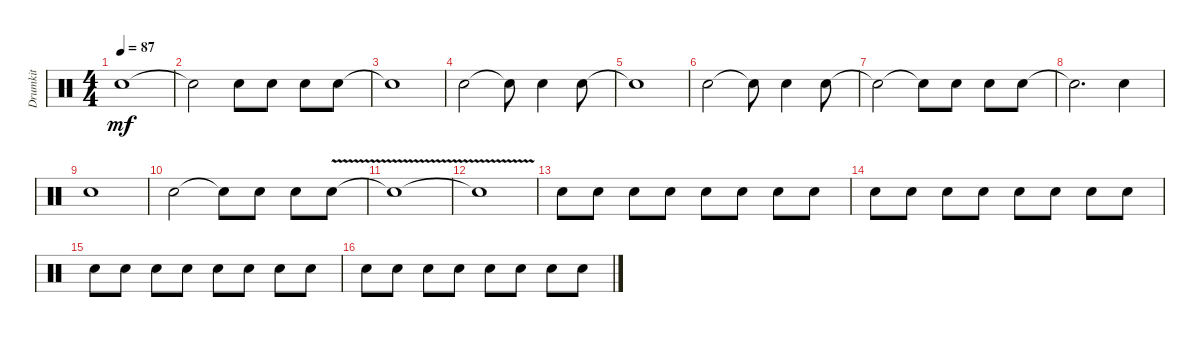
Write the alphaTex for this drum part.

\track ("Drumkit" "Drumkit") {instrument percussion}
\staff {score}
\articulation defaults
\ts (4 4)
\tempo 87
\clef neutral
\ks c "Snare (hit)".1{dy mf}
|
"Snare (hit)"{t}.2 "Snare (hit)".8 "Snare (hit)".8 "Snare (hit)".8 "Snare (hit)".8 |
"Snare (hit)"{t}.1 |
"Snare (hit)".2 "Snare (hit)"{t}.8 "Snare (hit)".4 "Snare (hit)".8 |
"Snare (hit)"{t}.1 |
"Snare (hit)".2 "Snare (hit)"{t}.8 "Snare (hit)".4 "Snare (hit)".8 |
"Snare (hit)"{t}.2 "Snare (hit)"{t}.8 "Snare (hit)".8 "Snare (hit)".8 "Snare (hit)".8 |
"Snare (hit)"{t}.2{d} "Snare (hit)".4 |
"Snare (hit)".1 |
"Snare (hit)".2 "Snare (hit)"{t}.8 "Snare (hit)".8 "Snare (hit)".8 "Snare (hit)"{v}.8 |
"Snare (hit)"{v t}.1 |
"Snare (hit)"{v t}.1 |
"Snare (hit)".8 "Snare (hit)".8 "Snare (hit)".8 "Snare (hit)".8 "Snare (hit)".8 "Snare (hit)".8 "Snare (hit)".8 "Snare (hit)".8 |
"Snare (hit)".8 "Snare (hit)".8 "Snare (hit)".8 "Snare (hit)".8 "Snare (hit)".8 "Snare (hit)".8 "Snare (hit)".8 "Snare (hit)".8 |
"Snare (hit)".8 "Snare (hit)".8 "Snare (hit)".8 "Snare (hit)".8 "Snare (hit)".8 "Snare (hit)".8 "Snare (hit)".8 "Snare (hit)".8 |
"Snare (hit)".8 "Snare (hit)".8 "Snare (hit)".8 "Snare (hit)".8 "Snare (hit)".8 "Snare (hit)".8 "Snare (hit)".8 "Snare (hit)".8
